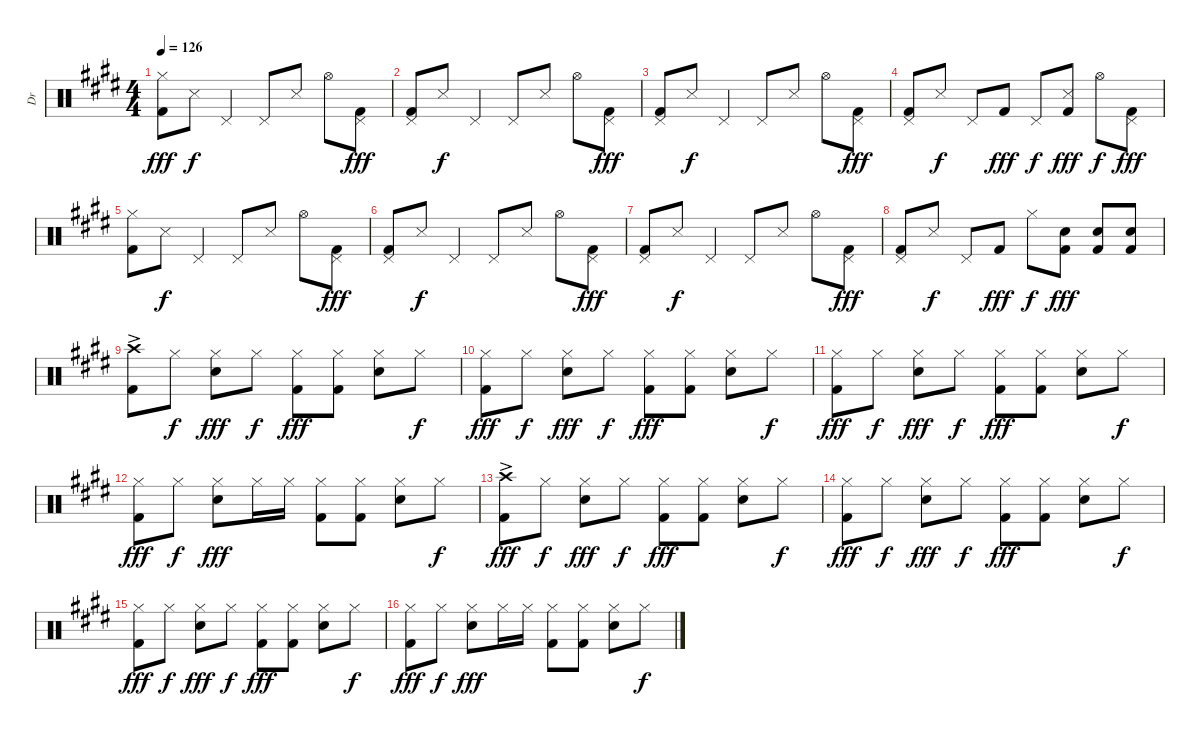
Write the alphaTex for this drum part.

\track ("Dr" "Dr") {instrument percussion}
\staff {score}
\articulation defaults
\ts (4 4)
\tempo 126
\clef neutral
\ks e
("Hi-Hat (closed)" "Kick (hit) 2").8{dy fff} "Snare (side stick) 3".8{dy f} "Pedal Hi-Hat (hit)".4 "Pedal Hi-Hat (hit)".8 "Snare (side stick) 3".8 "Hi-Hat (open)".8 ("Pedal Hi-Hat (hit)" "Kick (hit) 2").8{dy fff} |
("Pedal Hi-Hat (hit)" "Kick (hit) 2").8 "Snare (side stick) 3".8{dy f} "Pedal Hi-Hat (hit)".4 "Pedal Hi-Hat (hit)".8 "Snare (side stick) 3".8 "Hi-Hat (open)".8 ("Pedal Hi-Hat (hit)" "Kick (hit) 2").8{dy fff} |
("Pedal Hi-Hat (hit)" "Kick (hit) 2").8 "Snare (side stick) 3".8{dy f} "Pedal Hi-Hat (hit)".4 "Pedal Hi-Hat (hit)".8 "Snare (side stick) 3".8 "Hi-Hat (open)".8 ("Pedal Hi-Hat (hit)" "Kick (hit) 2").8{dy fff} |
("Pedal Hi-Hat (hit)" "Kick (hit) 2").8 "Snare (side stick) 3".8{dy f} "Pedal Hi-Hat (hit)".8 "Kick (hit) 2".8{dy fff} "Pedal Hi-Hat (hit)".8{dy f} ("Snare (side stick) 3" "Kick (hit) 2").8{dy fff} "Hi-Hat (open)".8{dy f} ("Pedal Hi-Hat (hit)" "Kick (hit) 2").8{dy fff} |
("Hi-Hat (closed)" "Kick (hit) 2").8 "Snare (side stick) 3".8{dy f} "Pedal Hi-Hat (hit)".4 "Pedal Hi-Hat (hit)".8 "Snare (side stick) 3".8 "Hi-Hat (open)".8 ("Pedal Hi-Hat (hit)" "Kick (hit) 2").8{dy fff} |
("Pedal Hi-Hat (hit)" "Kick (hit) 2").8 "Snare (side stick) 3".8{dy f} "Pedal Hi-Hat (hit)".4 "Pedal Hi-Hat (hit)".8 "Snare (side stick) 3".8 "Hi-Hat (open)".8 ("Pedal Hi-Hat (hit)" "Kick (hit) 2").8{dy fff} |
("Pedal Hi-Hat (hit)" "Kick (hit) 2").8 "Snare (side stick) 3".8{dy f} "Pedal Hi-Hat (hit)".4 "Pedal Hi-Hat (hit)".8 "Snare (side stick) 3".8 "Hi-Hat (open)".8 ("Pedal Hi-Hat (hit)" "Kick (hit) 2").8{dy fff} |
("Pedal Hi-Hat (hit)" "Kick (hit) 2").8 "Snare (side stick) 3".8{dy f} "Pedal Hi-Hat (hit)".8 "Kick (hit) 2".8{dy fff} "Hi-Hat (closed)".8{dy f} ("Electric Snare (hit)" "Kick (hit) 2").8{dy fff} ("Electric Snare (hit)" "Kick (hit) 2").8 ("Electric Snare (hit)" "Kick (hit) 2").8 |
("Crash high (hit)" "Kick (hit) 2"{ac}).8 "Hi-Hat (closed)".8{dy f} ("Hi-Hat (closed)" "Electric Snare (hit)").8{dy fff} "Hi-Hat (closed)".8{dy f} ("Hi-Hat (closed)" "Kick (hit) 2").8{dy fff} ("Hi-Hat (closed)" "Kick (hit) 2").8 ("Hi-Hat (closed)" "Electric Snare (hit)").8 "Hi-Hat (closed)".8{dy f} |
("Hi-Hat (closed)" "Kick (hit) 2").8{dy fff} "Hi-Hat (closed)".8{dy f} ("Hi-Hat (closed)" "Electric Snare (hit)").8{dy fff} "Hi-Hat (closed)".8{dy f} ("Hi-Hat (closed)" "Kick (hit) 2").8{dy fff} ("Hi-Hat (closed)" "Kick (hit) 2").8 ("Hi-Hat (closed)" "Electric Snare (hit)").8 "Hi-Hat (closed)".8{dy f} |
("Hi-Hat (closed)" "Kick (hit) 2").8{dy fff} "Hi-Hat (closed)".8{dy f} ("Hi-Hat (closed)" "Electric Snare (hit)").8{dy fff} "Hi-Hat (closed)".8{dy f} ("Hi-Hat (closed)" "Kick (hit) 2").8{dy fff} ("Hi-Hat (closed)" "Kick (hit) 2").8 ("Hi-Hat (closed)" "Electric Snare (hit)").8 "Hi-Hat (closed)".8{dy f} |
("Hi-Hat (closed)" "Kick (hit) 2").8{dy fff} "Hi-Hat (closed)".8{dy f} ("Hi-Hat (closed)" "Electric Snare (hit)").8{dy fff} "Hi-Hat (closed)".16 "Hi-Hat (closed)".16 ("Hi-Hat (closed)" "Kick (hit) 2").8 ("Hi-Hat (closed)" "Kick (hit) 2").8 ("Hi-Hat (closed)" "Electric Snare (hit)").8 "Hi-Hat (closed)".8{dy f} |
("Crash high (hit)" "Kick (hit) 2"{ac}).8{dy fff} "Hi-Hat (closed)".8{dy f} ("Hi-Hat (closed)" "Electric Snare (hit)").8{dy fff} "Hi-Hat (closed)".8{dy f} ("Hi-Hat (closed)" "Kick (hit) 2").8{dy fff} ("Hi-Hat (closed)" "Kick (hit) 2").8 ("Hi-Hat (closed)" "Electric Snare (hit)").8 "Hi-Hat (closed)".8{dy f} |
("Hi-Hat (closed)" "Kick (hit) 2").8{dy fff} "Hi-Hat (closed)".8{dy f} ("Hi-Hat (closed)" "Electric Snare (hit)").8{dy fff} "Hi-Hat (closed)".8{dy f} ("Hi-Hat (closed)" "Kick (hit) 2").8{dy fff} ("Hi-Hat (closed)" "Kick (hit) 2").8 ("Hi-Hat (closed)" "Electric Snare (hit)").8 "Hi-Hat (closed)".8{dy f} |
("Hi-Hat (closed)" "Kick (hit) 2").8{dy fff} "Hi-Hat (closed)".8{dy f} ("Hi-Hat (closed)" "Electric Snare (hit)").8{dy fff} "Hi-Hat (closed)".8{dy f} ("Hi-Hat (closed)" "Kick (hit) 2").8{dy fff} ("Hi-Hat (closed)" "Kick (hit) 2").8 ("Hi-Hat (closed)" "Electric Snare (hit)").8 "Hi-Hat (closed)".8{dy f} |
("Hi-Hat (closed)" "Kick (hit) 2").8{dy fff} "Hi-Hat (closed)".8{dy f} ("Hi-Hat (closed)" "Electric Snare (hit)").8{dy fff} "Hi-Hat (closed)".16 "Hi-Hat (closed)".16 ("Hi-Hat (closed)" "Kick (hit) 2").8 ("Hi-Hat (closed)" "Kick (hit) 2").8 ("Hi-Hat (closed)" "Electric Snare (hit)").8 "Hi-Hat (closed)".8{dy f}
